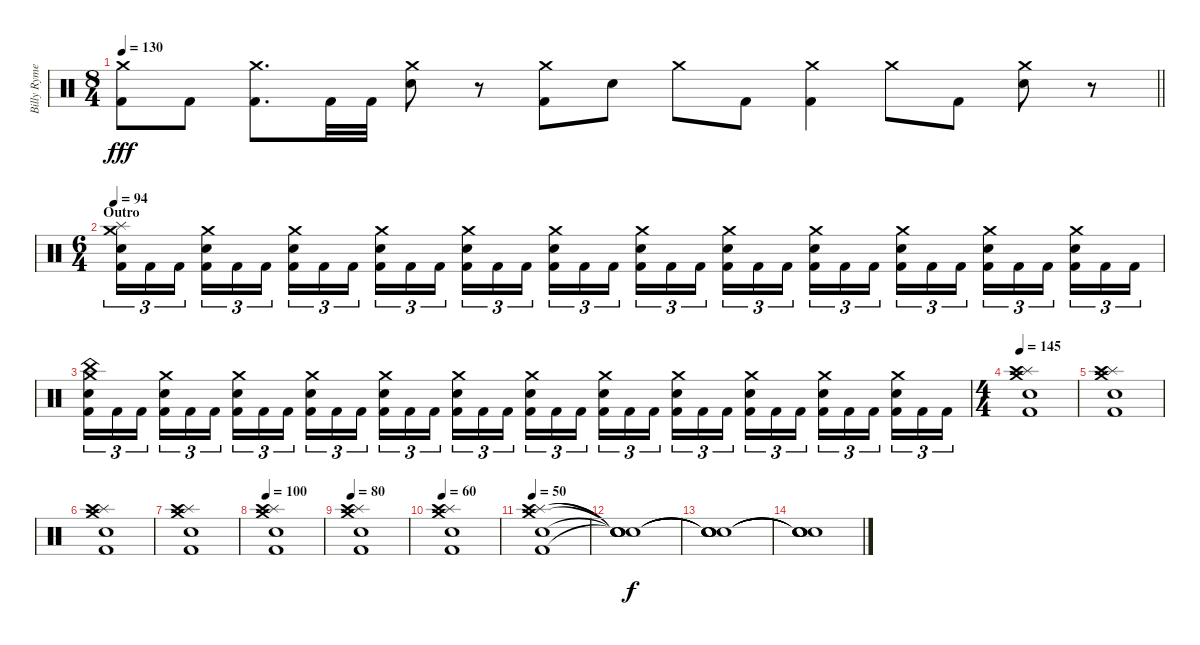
\track ("Billy Rymer" "Billy Ryme") {instrument percussion}
\staff {score}
\articulation defaults
\ts (8 4)
\tempo 130
\clef neutral
\barLineRight lightlight
\ks c
("Crash medium (hit)" "Kick (hit) 2").8{dy fff} "Kick (hit) 2".8 ("Crash medium (hit)" "Kick (hit) 2").8{d} "Kick (hit) 2".32 "Kick (hit) 2".32 ("Crash medium (hit)" "Electric Snare (hit)").8 r.8 ("Crash medium (hit)" "Kick (hit) 2").8 "Electric Snare (hit)".8 "Crash medium (hit)".8 "Kick (hit) 2".8 ("Crash medium (hit)" "Kick (hit) 2").4 "Crash medium (hit)".8 "Kick (hit) 2".8 ("Crash medium (hit)" "Electric Snare (hit)").8 r.8 |
\ts (6 4)
\section ("" "Outro")
\tempo 94
("Splash (hit)" "Crash medium (hit)" "Electric Snare (hit)" "Kick (hit) 2").16{tu (3 2)} "Kick (hit) 2".16{tu (3 2)} "Kick (hit) 2".16{tu (3 2) beam splitsecondary} ("Crash medium (hit)" "Electric Snare (hit)" "Kick (hit) 2").16{tu (3 2)} "Kick (hit) 2".16{tu (3 2)} "Kick (hit) 2".16{tu (3 2) beam splitsecondary} ("Crash medium (hit)" "Electric Snare (hit)" "Kick (hit) 2").16{tu (3 2)} "Kick (hit) 2".16{tu (3 2)} "Kick (hit) 2".16{tu (3 2) beam splitsecondary} ("Crash medium (hit)" "Electric Snare (hit)" "Kick (hit) 2").16{tu (3 2)} "Kick (hit) 2".16{tu (3 2)} "Kick (hit) 2".16{tu (3 2) beam splitsecondary} ("Crash medium (hit)" "Electric Snare (hit)" "Kick (hit) 2").16{tu (3 2)} "Kick (hit) 2".16{tu (3 2)} "Kick (hit) 2".16{tu (3 2) beam splitsecondary} ("Crash medium (hit)" "Electric Snare (hit)" "Kick (hit) 2").16{tu (3 2)} "Kick (hit) 2".16{tu (3 2)} "Kick (hit) 2".16{tu (3 2)} ("Crash medium (hit)" "Electric Snare (hit)" "Kick (hit) 2").16{tu (3 2)} "Kick (hit) 2".16{tu (3 2)} "Kick (hit) 2".16{tu (3 2) beam splitsecondary} ("Crash medium (hit)" "Electric Snare (hit)" "Kick (hit) 2").16{tu (3 2)} "Kick (hit) 2".16{tu (3 2)} "Kick (hit) 2".16{tu (3 2) beam splitsecondary} ("Crash medium (hit)" "Electric Snare (hit)" "Kick (hit) 2").16{tu (3 2)} "Kick (hit) 2".16{tu (3 2)} "Kick (hit) 2".16{tu (3 2) beam splitsecondary} ("Crash medium (hit)" "Electric Snare (hit)" "Kick (hit) 2").16{tu (3 2)} "Kick (hit) 2".16{tu (3 2)} "Kick (hit) 2".16{tu (3 2) beam splitsecondary} ("Crash medium (hit)" "Electric Snare (hit)" "Kick (hit) 2").16{tu (3 2)} "Kick (hit) 2".16{tu (3 2)} "Kick (hit) 2".16{tu (3 2) beam splitsecondary} ("Crash medium (hit)" "Electric Snare (hit)" "Kick (hit) 2").16{tu (3 2)} "Kick (hit) 2".16{tu (3 2)} "Kick (hit) 2".16{tu (3 2)} |
("China (hit)" "Crash medium (hit)" "Electric Snare (hit)" "Kick (hit) 2").16{tu (3 2)} "Kick (hit) 2".16{tu (3 2)} "Kick (hit) 2".16{tu (3 2) beam splitsecondary} ("Crash medium (hit)" "Electric Snare (hit)" "Kick (hit) 2").16{tu (3 2)} "Kick (hit) 2".16{tu (3 2)} "Kick (hit) 2".16{tu (3 2) beam splitsecondary} ("Crash medium (hit)" "Electric Snare (hit)" "Kick (hit) 2").16{tu (3 2)} "Kick (hit) 2".16{tu (3 2)} "Kick (hit) 2".16{tu (3 2) beam splitsecondary} ("Crash medium (hit)" "Electric Snare (hit)" "Kick (hit) 2").16{tu (3 2)} "Kick (hit) 2".16{tu (3 2)} "Kick (hit) 2".16{tu (3 2) beam splitsecondary} ("Crash medium (hit)" "Electric Snare (hit)" "Kick (hit) 2").16{tu (3 2)} "Kick (hit) 2".16{tu (3 2)} "Kick (hit) 2".16{tu (3 2) beam splitsecondary} ("Crash medium (hit)" "Electric Snare (hit)" "Kick (hit) 2").16{tu (3 2)} "Kick (hit) 2".16{tu (3 2)} "Kick (hit) 2".16{tu (3 2)} ("Crash medium (hit)" "Electric Snare (hit)" "Kick (hit) 2").16{tu (3 2)} "Kick (hit) 2".16{tu (3 2)} "Kick (hit) 2".16{tu (3 2) beam splitsecondary} ("Crash medium (hit)" "Electric Snare (hit)" "Kick (hit) 2").16{tu (3 2)} "Kick (hit) 2".16{tu (3 2)} "Kick (hit) 2".16{tu (3 2) beam splitsecondary} ("Crash medium (hit)" "Electric Snare (hit)" "Kick (hit) 2").16{tu (3 2)} "Kick (hit) 2".16{tu (3 2)} "Kick (hit) 2".16{tu (3 2) beam splitsecondary} ("Crash medium (hit)" "Electric Snare (hit)" "Kick (hit) 2").16{tu (3 2)} "Kick (hit) 2".16{tu (3 2)} "Kick (hit) 2".16{tu (3 2) beam splitsecondary} ("Crash medium (hit)" "Electric Snare (hit)" "Kick (hit) 2").16{tu (3 2)} "Kick (hit) 2".16{tu (3 2)} "Kick (hit) 2".16{tu (3 2) beam splitsecondary} ("Crash medium (hit)" "Electric Snare (hit)" "Kick (hit) 2").16{tu (3 2)} "Kick (hit) 2".16{tu (3 2)} "Kick (hit) 2".16{tu (3 2)} |
\ts (4 4)
\tempo 145
("Crash medium (hit)" "Splash (hit)" "Crash high (hit)" "Electric Snare (hit)" "Kick (hit) 2").1 |
("Crash medium (hit)" "Splash (hit)" "Crash high (hit)" "Electric Snare (hit)" "Kick (hit) 2").1 |
("Crash medium (hit)" "Splash (hit)" "Crash high (hit)" "Electric Snare (hit)" "Kick (hit) 2").1 |
("Crash medium (hit)" "Splash (hit)" "Crash high (hit)" "Electric Snare (hit)" "Kick (hit) 2").1 |
\tempo 100
("Crash medium (hit)" "Splash (hit)" "Crash high (hit)" "Electric Snare (hit)" "Kick (hit) 2").1 |
\tempo 80
("Crash medium (hit)" "Splash (hit)" "Crash high (hit)" "Electric Snare (hit)" "Kick (hit) 2").1 |
\tempo 60
("Crash medium (hit)" "Splash (hit)" "Crash high (hit)" "Electric Snare (hit)" "Kick (hit) 2").1 |
\tempo 50
("Crash medium (hit)" "Splash (hit)" "Crash high (hit)" "Electric Snare (hit)" "Kick (hit) 2").1 |
("Snare (hit)"{t} "Snare (hit)"{t} "Snare (hit)"{t} "Snare (hit)"{t} "Snare (hit)"{t}).1{dy f} |
("Snare (hit)"{t} "Snare (hit)"{t} "Snare (hit)"{t} "Snare (hit)"{t} "Snare (hit)"{t}).1 |
("Snare (hit)"{t} "Snare (hit)"{t} "Snare (hit)"{t} "Snare (hit)"{t} "Snare (hit)"{t}).1
